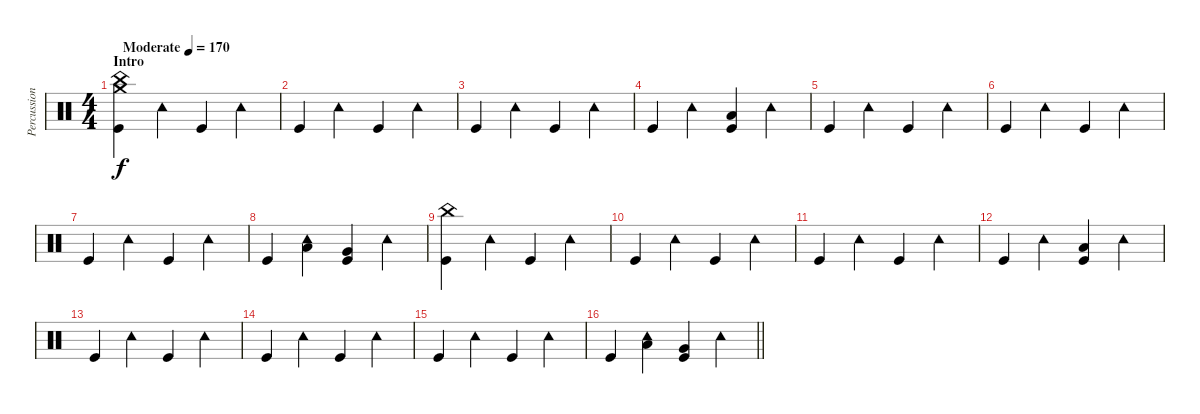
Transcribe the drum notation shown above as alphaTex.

\track ("Percussion" "Percussion") {instrument percussion}
\staff {score}
\articulation defaults
\ts (4 4)
\section ("" "Intro")
\tempo (170 "Moderate")
\clef neutral
\ks c
("Crash medium (hit)" "China (hit)" "Kick (hit)").4{dy f} "Tambourine (hit)".4 "Kick (hit)".4 "Tambourine (hit)".4 |
"Kick (hit)".4 "Tambourine (hit)".4 "Kick (hit)".4 "Tambourine (hit)".4 |
"Kick (hit)".4 "Tambourine (hit)".4 "Kick (hit)".4 "Tambourine (hit)".4 |
"Kick (hit)".4 "Tambourine (hit)".4 ("Low Tom (hit)" "Kick (hit)").4 "Tambourine (hit)".4 |
"Kick (hit)".4 "Tambourine (hit)".4 "Kick (hit)".4 "Tambourine (hit)".4 |
"Kick (hit)".4 "Tambourine (hit)".4 "Kick (hit)".4 "Tambourine (hit)".4 |
"Kick (hit)".4 "Tambourine (hit)".4 "Kick (hit)".4 "Tambourine (hit)".4 |
"Kick (hit)".4 ("Tambourine (hit)" "Low Tom (hit)").4 ("Very Low Tom (hit)" "Kick (hit)").4 "Tambourine (hit)".4 |
("China (hit)" "Kick (hit)").4 "Tambourine (hit)".4 "Kick (hit)".4 "Tambourine (hit)".4 |
"Kick (hit)".4 "Tambourine (hit)".4 "Kick (hit)".4 "Tambourine (hit)".4 |
"Kick (hit)".4 "Tambourine (hit)".4 "Kick (hit)".4 "Tambourine (hit)".4 |
"Kick (hit)".4 "Tambourine (hit)".4 ("Low Tom (hit)" "Kick (hit)").4 "Tambourine (hit)".4 |
"Kick (hit)".4 "Tambourine (hit)".4 "Kick (hit)".4 "Tambourine (hit)".4 |
"Kick (hit)".4 "Tambourine (hit)".4 "Kick (hit)".4 "Tambourine (hit)".4 |
"Kick (hit)".4 "Tambourine (hit)".4 "Kick (hit)".4 "Tambourine (hit)".4 |
\barLineRight lightlight "Kick (hit)".4
("Tambourine (hit)" "Low Tom (hit)").4 ("Very Low Tom (hit)" "Kick (hit)").4 "Tambourine (hit)".4
